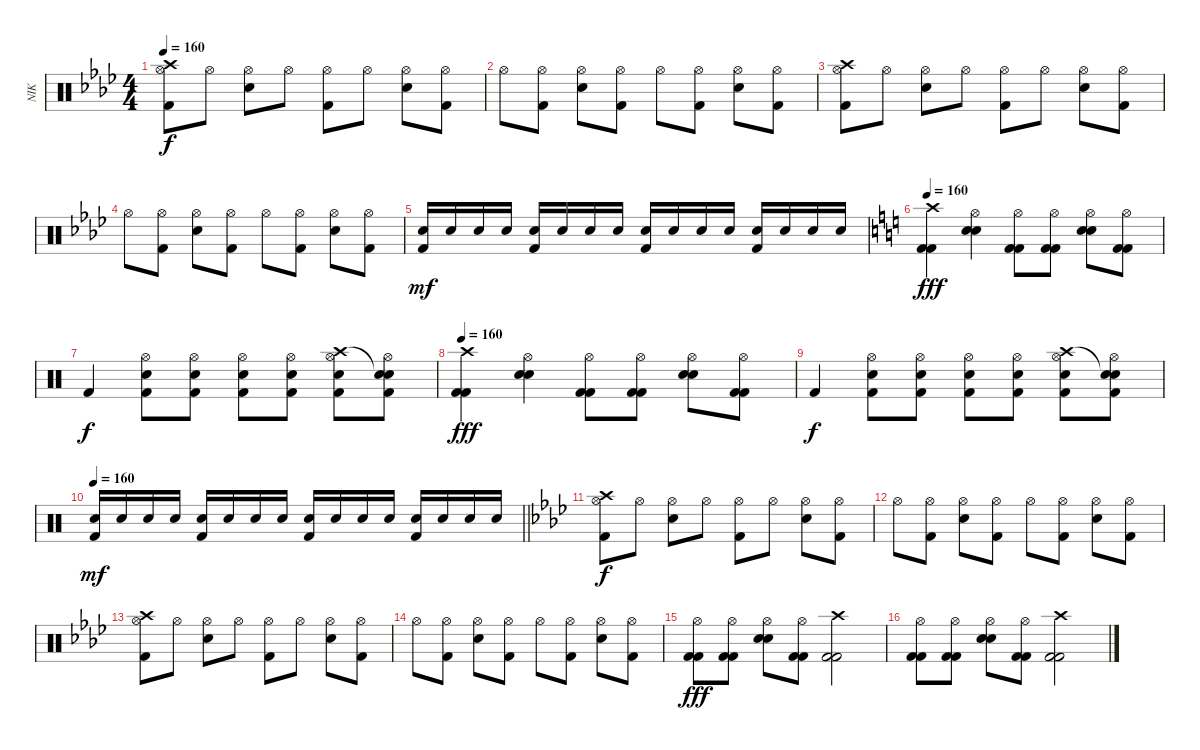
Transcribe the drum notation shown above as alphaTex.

\track ("NIK" "NIK") {instrument percussion}
\staff {score}
\articulation defaults
\ts (4 4)
\tempo 160
\clef neutral
\ks ab
("Crash high (hit)" "Hi-Hat (open)" "Kick (hit) 2").8{dy f} "Hi-Hat (open)".8 ("Hi-Hat (open)" "Electric Snare (hit)").8 "Hi-Hat (open)".8 ("Hi-Hat (open)" "Kick (hit) 2").8 "Hi-Hat (open)".8 ("Hi-Hat (open)" "Electric Snare (hit)").8 ("Hi-Hat (open)" "Kick (hit) 2").8 |
"Hi-Hat (open)".8 ("Hi-Hat (open)" "Kick (hit) 2").8 ("Hi-Hat (open)" "Electric Snare (hit)").8 ("Hi-Hat (open)" "Kick (hit) 2").8 "Hi-Hat (open)".8 ("Hi-Hat (open)" "Kick (hit) 2").8 ("Hi-Hat (open)" "Electric Snare (hit)").8 ("Hi-Hat (open)" "Kick (hit) 2").8 |
("Crash high (hit)" "Hi-Hat (open)" "Kick (hit) 2").8 "Hi-Hat (open)".8 ("Hi-Hat (open)" "Electric Snare (hit)").8 "Hi-Hat (open)".8 ("Hi-Hat (open)" "Kick (hit) 2").8 "Hi-Hat (open)".8 ("Hi-Hat (open)" "Electric Snare (hit)").8 ("Hi-Hat (open)" "Kick (hit) 2").8 |
"Hi-Hat (open)".8 ("Hi-Hat (open)" "Kick (hit) 2").8 ("Hi-Hat (open)" "Electric Snare (hit)").8 ("Hi-Hat (open)" "Kick (hit) 2").8 "Hi-Hat (open)".8 ("Hi-Hat (open)" "Kick (hit) 2").8 ("Hi-Hat (open)" "Electric Snare (hit)").8 ("Hi-Hat (open)" "Kick (hit) 2").8 |
("Electric Snare (hit)" "Kick (hit) 2").16{dy mf} "Electric Snare (hit)".16 "Electric Snare (hit)".16 "Electric Snare (hit)".16 ("Electric Snare (hit)" "Kick (hit) 2").16 "Electric Snare (hit)".16 "Electric Snare (hit)".16 "Electric Snare (hit)".16 ("Electric Snare (hit)" "Kick (hit) 2").16 "Electric Snare (hit)".16 "Electric Snare (hit)".16 "Electric Snare (hit)".16 ("Electric Snare (hit)" "Kick (hit) 2").16 "Electric Snare (hit)".16 "Electric Snare (hit)".16 "Electric Snare (hit)".16 |
\tempo 160
\ks c
("Crash high (hit)" "Kick (hit) 2" "Kick (hit) 2").4{dy fff} ("Hi-Hat (open)" "Electric Snare (hit)" "Electric Snare (hit)").4 ("Hi-Hat (open)" "Kick (hit) 2" "Kick (hit) 2").8 ("Hi-Hat (open)" "Kick (hit) 2" "Kick (hit) 2").8 ("Hi-Hat (open)" "Electric Snare (hit)" "Electric Snare (hit)").8 ("Hi-Hat (open)" "Kick (hit) 2" "Kick (hit) 2").8 |
"Kick (hit) 2".4{dy f} ("Electric Snare (hit)" "Hi-Hat (open)" "Kick (hit) 2").8 ("Electric Snare (hit)" "Hi-Hat (open)" "Kick (hit) 2").8 ("Electric Snare (hit)" "Hi-Hat (open)" "Kick (hit) 2").8 ("Electric Snare (hit)" "Hi-Hat (open)" "Kick (hit) 2").8 ("Electric Snare (hit)" "Hi-Hat (open)" "Kick (hit) 2" "Crash high (hit)").8 ("Electric Snare (hit)" "Hi-Hat (open)" "Kick (hit) 2" "Snare (hit)"{t}).8 |
\tempo 160
("Crash high (hit)" "Kick (hit) 2" "Kick (hit) 2").4{dy fff} ("Hi-Hat (open)" "Electric Snare (hit)" "Electric Snare (hit)").4 ("Hi-Hat (open)" "Kick (hit) 2" "Kick (hit) 2").8 ("Hi-Hat (open)" "Kick (hit) 2" "Kick (hit) 2").8 ("Hi-Hat (open)" "Electric Snare (hit)" "Electric Snare (hit)").8 ("Hi-Hat (open)" "Kick (hit) 2" "Kick (hit) 2").8 |
"Kick (hit) 2".4{dy f} ("Electric Snare (hit)" "Hi-Hat (open)" "Kick (hit) 2").8 ("Electric Snare (hit)" "Hi-Hat (open)" "Kick (hit) 2").8 ("Electric Snare (hit)" "Hi-Hat (open)" "Kick (hit) 2").8 ("Electric Snare (hit)" "Hi-Hat (open)" "Kick (hit) 2").8 ("Electric Snare (hit)" "Hi-Hat (open)" "Kick (hit) 2" "Crash high (hit)").8 ("Electric Snare (hit)" "Hi-Hat (open)" "Kick (hit) 2" "Snare (hit)"{t}).8 |
\tempo 160
\barLineRight lightlight
("Electric Snare (hit)" "Kick (hit) 2").16{dy mf} "Electric Snare (hit)".16 "Electric Snare (hit)".16 "Electric Snare (hit)".16 ("Electric Snare (hit)" "Kick (hit) 2").16 "Electric Snare (hit)".16 "Electric Snare (hit)".16 "Electric Snare (hit)".16 ("Electric Snare (hit)" "Kick (hit) 2").16 "Electric Snare (hit)".16 "Electric Snare (hit)".16 "Electric Snare (hit)".16 ("Electric Snare (hit)" "Kick (hit) 2").16 "Electric Snare (hit)".16 "Electric Snare (hit)".16 "Electric Snare (hit)".16 |
\ks ab
("Crash high (hit)" "Hi-Hat (open)" "Kick (hit) 2").8{dy f} "Hi-Hat (open)".8 ("Hi-Hat (open)" "Electric Snare (hit)").8 "Hi-Hat (open)".8 ("Hi-Hat (open)" "Kick (hit) 2").8 "Hi-Hat (open)".8 ("Hi-Hat (open)" "Electric Snare (hit)").8 ("Hi-Hat (open)" "Kick (hit) 2").8 |
"Hi-Hat (open)".8 ("Hi-Hat (open)" "Kick (hit) 2").8 ("Hi-Hat (open)" "Electric Snare (hit)").8 ("Hi-Hat (open)" "Kick (hit) 2").8 "Hi-Hat (open)".8 ("Hi-Hat (open)" "Kick (hit) 2").8 ("Hi-Hat (open)" "Electric Snare (hit)").8 ("Hi-Hat (open)" "Kick (hit) 2").8 |
("Crash high (hit)" "Hi-Hat (open)" "Kick (hit) 2").8 "Hi-Hat (open)".8 ("Hi-Hat (open)" "Electric Snare (hit)").8 "Hi-Hat (open)".8 ("Hi-Hat (open)" "Kick (hit) 2").8 "Hi-Hat (open)".8 ("Hi-Hat (open)" "Electric Snare (hit)").8 ("Hi-Hat (open)" "Kick (hit) 2").8 |
"Hi-Hat (open)".8 ("Hi-Hat (open)" "Kick (hit) 2").8 ("Hi-Hat (open)" "Electric Snare (hit)").8 ("Hi-Hat (open)" "Kick (hit) 2").8 "Hi-Hat (open)".8 ("Hi-Hat (open)" "Kick (hit) 2").8 ("Hi-Hat (open)" "Electric Snare (hit)").8 ("Hi-Hat (open)" "Kick (hit) 2").8 |
("Hi-Hat (open)" "Kick (hit) 2" "Kick (hit) 2").8{dy fff} ("Hi-Hat (open)" "Kick (hit) 2" "Kick (hit) 2").8 ("Hi-Hat (open)" "Electric Snare (hit)" "Electric Snare (hit)").8 ("Hi-Hat (open)" "Kick (hit) 2" "Kick (hit) 2").8 ("Crash high (hit)" "Kick (hit) 2" "Kick (hit) 2").2 |
("Hi-Hat (open)" "Kick (hit) 2" "Kick (hit) 2").8 ("Hi-Hat (open)" "Kick (hit) 2" "Kick (hit) 2").8 ("Hi-Hat (open)" "Electric Snare (hit)" "Electric Snare (hit)").8 ("Hi-Hat (open)" "Kick (hit) 2" "Kick (hit) 2").8 ("Crash high (hit)" "Kick (hit) 2" "Kick (hit) 2").2
